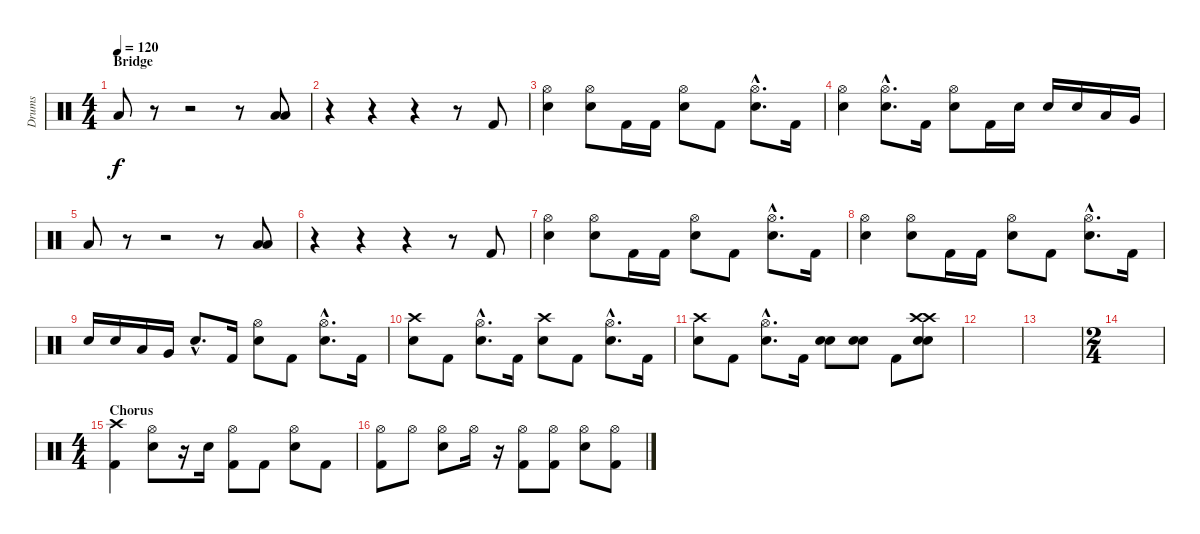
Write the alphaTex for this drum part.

\track ("Drums" "Drums") {instrument percussion}
\staff {score}
\articulation defaults
\ts (4 4)
\section ("" "Bridge")
\tempo 120
\clef neutral
\ks c "Low Tom (hit)".8{dy f}
r.8 r.2 r.8 ("Low Tom (hit)" "Low Tom (hit)").8 |
r.4 r.4 r.4 r.8 "Kick (hit) 2".8 |
("Hi-Hat (open)" "Snare (hit) 2").4 ("Hi-Hat (open)" "Snare (hit) 2").8 "Kick (hit) 2".16 "Kick (hit) 2".16 ("Hi-Hat (open)" "Snare (hit) 2").8 "Kick (hit) 2".8 ("Hi-Hat (open)"{hac} "Snare (hit) 2"{hac}).8{d} "Kick (hit) 2".16 |
("Hi-Hat (open)" "Snare (hit) 2").4 ("Hi-Hat (open)"{hac} "Snare (hit) 2"{hac}).8{d} "Kick (hit) 2".16 ("Hi-Hat (open)" "Snare (hit) 2").8 "Kick (hit) 2".16 "Snare (hit) 2".16 "Snare (hit) 2".16 "Snare (hit) 2".16 "Low Tom (hit)".16 "Very Low Tom (hit)".16 |
"Low Tom (hit)".8 r.8 r.2 r.8 ("Low Tom (hit)" "Low Tom (hit)").8 |
r.4 r.4 r.4 r.8 "Kick (hit) 2".8 |
("Hi-Hat (open)" "Snare (hit) 2").4 ("Hi-Hat (open)" "Snare (hit) 2").8 "Kick (hit) 2".16 "Kick (hit) 2".16 ("Hi-Hat (open)" "Snare (hit) 2").8 "Kick (hit) 2".8 ("Hi-Hat (open)"{hac} "Snare (hit) 2"{hac}).8{d} "Kick (hit) 2".16 |
("Hi-Hat (open)" "Snare (hit) 2").4 ("Hi-Hat (open)" "Snare (hit) 2").8 "Kick (hit) 2".16 "Kick (hit) 2".16 ("Hi-Hat (open)" "Snare (hit) 2").8 "Kick (hit) 2".8 ("Hi-Hat (open)"{hac} "Snare (hit) 2"{hac}).8{d} "Kick (hit) 2".16 |
"Snare (hit) 2".16 "Snare (hit) 2".16 "Low Tom (hit)".16 "Very Low Tom (hit)".16 "Snare (hit) 2"{hac}.8{d} "Kick (hit) 2".16 ("Hi-Hat (open)" "Snare (hit) 2").8 "Kick (hit) 2".8 ("Hi-Hat (open)"{hac} "Snare (hit) 2"{hac}).8{d} "Kick (hit) 2".16 |
("Crash high (hit)" "Snare (hit) 2").8 "Kick (hit) 2".8 ("Hi-Hat (open)"{hac} "Snare (hit) 2"{hac}).8{d} "Kick (hit) 2".16 ("Crash high (hit)" "Snare (hit) 2").8 "Kick (hit) 2".8 ("Hi-Hat (open)"{hac} "Snare (hit) 2"{hac}).8{d} "Kick (hit) 2".16 |
("Crash high (hit)" "Snare (hit) 2").8 "Kick (hit) 2".8 ("Hi-Hat (open)"{hac} "Snare (hit) 2"{hac}).8{d} "Kick (hit) 2".16 ("Snare (hit) 2" "Snare (hit) 2").8 ("Snare (hit) 2" "Snare (hit) 2").8 "Kick (hit) 2".8 ("Crash high (hit)" "Crash high (hit)" "Snare (hit) 2" "Snare (hit) 2").8 |
|
|
\ts (2 4)
|
\ts (4 4)
\section ("" "Chorus")
("Crash high (hit)" "Kick (hit) 2").4 ("Hi-Hat (open)" "Snare (hit) 2").8 r.16 "Snare (hit) 2".16 ("Hi-Hat (open)" "Kick (hit) 2").8 "Kick (hit) 2".8 ("Hi-Hat (open)" "Snare (hit) 2").8 "Kick (hit) 2".8 |
("Hi-Hat (open)" "Kick (hit) 2").8 "Hi-Hat (open)".8 ("Hi-Hat (open)" "Snare (hit) 2").8 "Hi-Hat (open)".16 r.16 ("Hi-Hat (open)" "Kick (hit) 2").8 ("Hi-Hat (open)" "Kick (hit) 2").8 ("Hi-Hat (open)" "Snare (hit) 2").8 ("Hi-Hat (open)" "Kick (hit) 2").8
